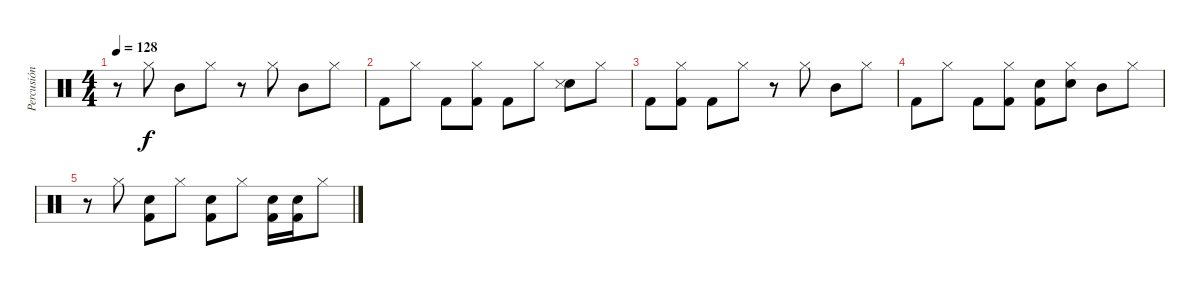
\track ("Percusión" "Percusión") {instrument percussion}
\staff {score}
\articulation defaults
\ts (4 4)
\tempo 128
\clef neutral
\ks c
r.8{dy f} "Hi-Hat (closed)".8 "Mid Tom (hit)".8 "Hi-Hat (closed)".8 r.8 "Hi-Hat (closed)".8 "Mid Tom (hit)".8 "Hi-Hat (closed)".8 |
"Kick (hit) 2".8 "Hi-Hat (closed)".8 "Kick (hit) 2".8 ("Hi-Hat (closed)" "Kick (hit) 2").8 "Kick (hit) 2".8 "Hi-Hat (closed)".8 ("Electric Snare (hit)" "Snare (side stick) 3").8 "Hi-Hat (closed)".8 |
"Kick (hit) 2".8 ("Hi-Hat (closed)" "Kick (hit) 2").8 "Kick (hit) 2".8 "Hi-Hat (closed)".8 r.8 "Hi-Hat (closed)".8 "Mid Tom (hit)".8 "Hi-Hat (closed)".8 |
"Kick (hit) 2".8 "Hi-Hat (closed)".8 "Kick (hit) 2".8 ("Hi-Hat (closed)" "Kick (hit) 2").8 ("Electric Snare (hit)" "Kick (hit) 2").8 ("Hi-Hat (closed)" "Electric Snare (hit)").8 "Mid Tom (hit)".8 "Hi-Hat (closed)".8 |
r.8 "Hi-Hat (closed)".8 ("Kick (hit) 2" "Electric Snare (hit)").8 "Hi-Hat (closed)".8 ("Kick (hit) 2" "Electric Snare (hit)").8 "Hi-Hat (closed)".8 ("Kick (hit) 2" "Electric Snare (hit)").16 ("Kick (hit) 2" "Electric Snare (hit)").16 "Hi-Hat (closed)".8
